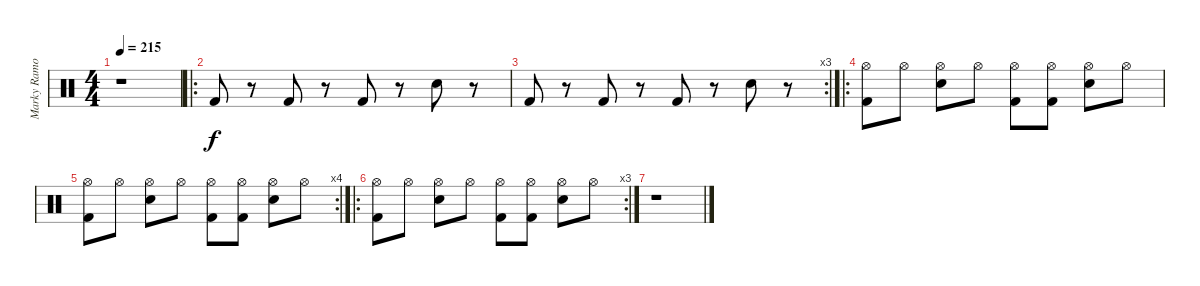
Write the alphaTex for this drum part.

\track ("Marky Ramone (Drums)" "Marky Ramo") {instrument percussion}
\staff {score}
\articulation defaults
\ts (4 4)
\tempo 215
\clef neutral
\ks c
r.1{dy f} |
\ro "Kick (hit) 2".8
r.8 "Kick (hit) 2".8 r.8 "Kick (hit) 2".8 r.8 "Electric Snare (hit)".8 r.8 |
\rc 3 "Kick (hit) 2".8
r.8 "Kick (hit) 2".8 r.8 "Kick (hit) 2".8 r.8 "Electric Snare (hit)".8 r.8 |
\ro
("Kick (hit) 2" "Hi-Hat (open)").8 "Hi-Hat (open)".8 ("Electric Snare (hit)" "Hi-Hat (open)").8 "Hi-Hat (open)".8 ("Kick (hit) 2" "Hi-Hat (open)").8 ("Kick (hit) 2" "Hi-Hat (open)").8 ("Electric Snare (hit)" "Hi-Hat (open)").8 "Hi-Hat (open)".8 |
\rc 4
("Kick (hit) 2" "Hi-Hat (open)").8 "Hi-Hat (open)".8 ("Electric Snare (hit)" "Hi-Hat (open)").8 "Hi-Hat (open)".8 ("Kick (hit) 2" "Hi-Hat (open)").8 ("Kick (hit) 2" "Hi-Hat (open)").8 ("Electric Snare (hit)" "Hi-Hat (open)").8 "Hi-Hat (open)".8 |
\ro
\rc 3
("Kick (hit) 2" "Hi-Hat (open)").8 "Hi-Hat (open)".8 ("Electric Snare (hit)" "Hi-Hat (open)").8 "Hi-Hat (open)".8 ("Kick (hit) 2" "Hi-Hat (open)").8 ("Kick (hit) 2" "Hi-Hat (open)").8 ("Electric Snare (hit)" "Hi-Hat (open)").8 "Hi-Hat (open)".8 |
r.1
